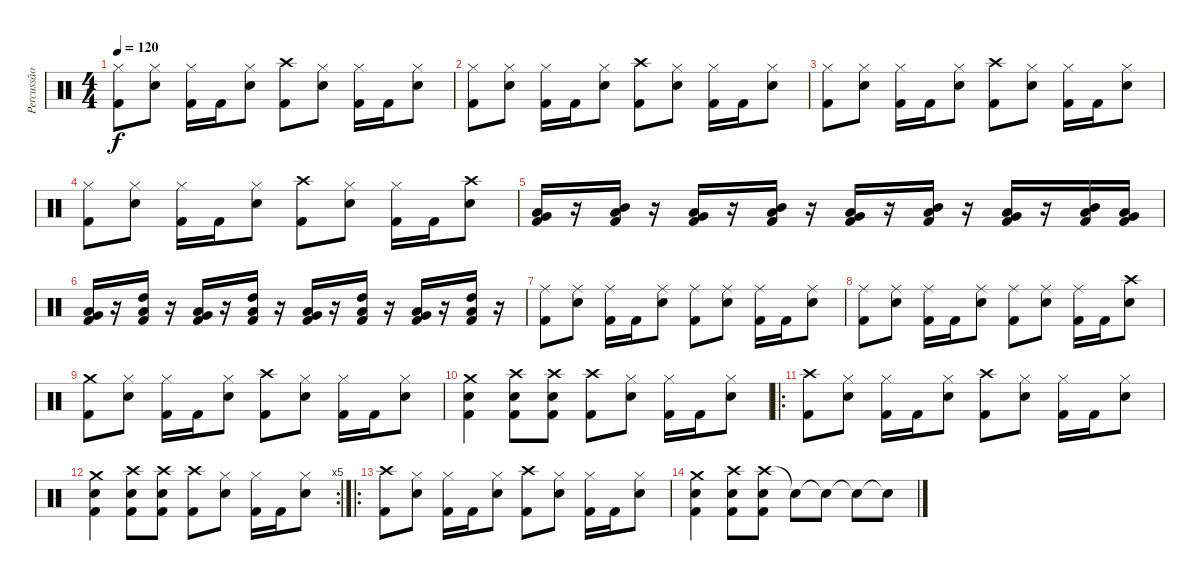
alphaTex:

\track ("Percussão" "Percussão") {instrument percussion}
\staff {score}
\articulation defaults
\ts (4 4)
\tempo 120
\clef neutral
\ks c
("Hi-Hat (closed)" "Kick (hit) 2").8{dy f} ("Hi-Hat (closed)" "Snare (hit) 2").8 ("Hi-Hat (closed)" "Kick (hit) 2").16 "Kick (hit) 2".16 ("Hi-Hat (closed)" "Snare (hit) 2").8 ("Crash high (hit)" "Kick (hit) 2").8 ("Hi-Hat (closed)" "Snare (hit) 2").8 ("Hi-Hat (closed)" "Kick (hit) 2").16 "Kick (hit) 2".16 ("Hi-Hat (closed)" "Snare (hit) 2").8 |
("Hi-Hat (closed)" "Kick (hit) 2").8 ("Hi-Hat (closed)" "Snare (hit) 2").8 ("Hi-Hat (closed)" "Kick (hit) 2").16 "Kick (hit) 2".16 ("Hi-Hat (closed)" "Snare (hit) 2").8 ("Crash high (hit)" "Kick (hit) 2").8 ("Hi-Hat (closed)" "Snare (hit) 2").8 ("Hi-Hat (closed)" "Kick (hit) 2").16 "Kick (hit) 2".16 ("Hi-Hat (closed)" "Snare (hit) 2").8 |
("Hi-Hat (closed)" "Kick (hit) 2").8 ("Hi-Hat (closed)" "Snare (hit) 2").8 ("Hi-Hat (closed)" "Kick (hit) 2").16 "Kick (hit) 2".16 ("Hi-Hat (closed)" "Snare (hit) 2").8 ("Crash high (hit)" "Kick (hit) 2").8 ("Hi-Hat (closed)" "Snare (hit) 2").8 ("Hi-Hat (closed)" "Kick (hit) 2").16 "Kick (hit) 2".16 ("Hi-Hat (closed)" "Snare (hit) 2").8 |
("Hi-Hat (closed)" "Kick (hit) 2").8 ("Hi-Hat (closed)" "Snare (hit) 2").8 ("Hi-Hat (closed)" "Kick (hit) 2").16 "Kick (hit) 2".16 ("Hi-Hat (closed)" "Snare (hit) 2").8 ("Crash high (hit)" "Kick (hit) 2").8 ("Hi-Hat (closed)" "Snare (hit) 2").8 ("Hi-Hat (closed)" "Kick (hit) 2").16 "Kick (hit) 2".16 ("Crash high (hit)" "Snare (hit) 2").8 |
("Low Tom (hit)" "Very Low Tom (hit)" "Kick (hit) 2").16 r.16 ("Mid Tom (hit)" "Low Tom (hit)" "Kick (hit) 2").16 r.16 ("Low Tom (hit)" "Very Low Tom (hit)" "Kick (hit) 2").16 r.16 ("Mid Tom (hit)" "Low Tom (hit)" "Kick (hit) 2").16 r.16 ("Low Tom (hit)" "Very Low Tom (hit)" "Kick (hit) 2").16 r.16 ("Mid Tom (hit)" "Low Tom (hit)" "Kick (hit) 2").16 r.16 ("Low Tom (hit)" "Very Low Tom (hit)" "Kick (hit) 2").16 r.16 ("Mid Tom (hit)" "Low Tom (hit)" "Kick (hit) 2").16 ("Low Tom (hit)" "Very Low Tom (hit)" "Kick (hit) 2").16 |
("Low Tom (hit)" "Very Low Tom (hit)" "Kick (hit) 2").16 r.16 ("High Tom (hit)" "Low Tom (hit)" "Kick (hit) 2").16 r.16 ("Low Tom (hit)" "Very Low Tom (hit)" "Kick (hit) 2").16 r.16 ("High Tom (hit)" "Low Tom (hit)" "Kick (hit) 2").16 r.16 ("Low Tom (hit)" "Very Low Tom (hit)" "Kick (hit) 2").16 r.16 ("High Tom (hit)" "Low Tom (hit)" "Kick (hit) 2").16 r.16 ("Low Tom (hit)" "Very Low Tom (hit)" "Kick (hit) 2").16 r.16 ("High Tom (hit)" "Low Tom (hit)" "Kick (hit) 2").16 r.16 |
("Ride (middle)" "Kick (hit) 2").8 ("Ride (middle)" "Snare (hit) 2").8 ("Ride (middle)" "Kick (hit) 2").16 "Kick (hit) 2".16 ("Ride (middle)" "Snare (hit) 2").8 ("Ride (middle)" "Kick (hit) 2").8 ("Ride (middle)" "Snare (hit) 2").8 ("Ride (middle)" "Kick (hit) 2").16 "Kick (hit) 2".16 ("Ride (middle)" "Snare (hit) 2").8 |
("Ride (middle)" "Kick (hit) 2").8 ("Ride (middle)" "Snare (hit) 2").8 ("Ride (middle)" "Kick (hit) 2").16 "Kick (hit) 2".16 ("Ride (middle)" "Snare (hit) 2").8 ("Ride (middle)" "Kick (hit) 2").8 ("Ride (middle)" "Snare (hit) 2").8 ("Ride (middle)" "Kick (hit) 2").16 "Kick (hit) 2".16 ("Crash high (hit)" "Snare (hit) 2").8 |
("Crash medium (hit)" "Kick (hit) 2").8 ("Hi-Hat (closed)" "Snare (hit) 2").8 ("Hi-Hat (closed)" "Kick (hit) 2").16 "Kick (hit) 2".16 ("Hi-Hat (closed)" "Snare (hit) 2").8 ("Crash high (hit)" "Kick (hit) 2").8 ("Hi-Hat (closed)" "Snare (hit) 2").8 ("Hi-Hat (closed)" "Kick (hit) 2").16 "Kick (hit) 2".16 ("Hi-Hat (closed)" "Snare (hit) 2").8 |
("Crash medium (hit)" "Snare (hit) 2" "Kick (hit) 2").4 ("Crash high (hit)" "Snare (hit) 2" "Kick (hit) 2").8 ("Crash high (hit)" "Snare (hit) 2" "Kick (hit) 2").8 ("Crash high (hit)" "Kick (hit) 2").8 ("Hi-Hat (closed)" "Snare (hit) 2").8 ("Hi-Hat (closed)" "Kick (hit) 2").16 "Kick (hit) 2".16 ("Hi-Hat (closed)" "Snare (hit) 2").8 |
\ro
("Crash high (hit)" "Kick (hit) 2").8 ("Hi-Hat (closed)" "Snare (hit) 2").8 ("Hi-Hat (closed)" "Kick (hit) 2").16 "Kick (hit) 2".16 ("Hi-Hat (closed)" "Snare (hit) 2").8 ("Crash high (hit)" "Kick (hit) 2").8 ("Hi-Hat (closed)" "Snare (hit) 2").8 ("Hi-Hat (closed)" "Kick (hit) 2").16 "Kick (hit) 2".16 ("Hi-Hat (closed)" "Snare (hit) 2").8 |
\rc 5
("Crash medium (hit)" "Snare (hit) 2" "Kick (hit) 2").4 ("Crash high (hit)" "Snare (hit) 2" "Kick (hit) 2").8 ("Crash high (hit)" "Snare (hit) 2" "Kick (hit) 2").8 ("Crash high (hit)" "Kick (hit) 2").8 ("Hi-Hat (closed)" "Snare (hit) 2").8 ("Hi-Hat (closed)" "Kick (hit) 2").16 "Kick (hit) 2".16 ("Hi-Hat (closed)" "Snare (hit) 2").8 |
\ro
("Crash high (hit)" "Kick (hit) 2").8 ("Hi-Hat (closed)" "Snare (hit) 2").8 ("Hi-Hat (closed)" "Kick (hit) 2").16 "Kick (hit) 2".16 ("Hi-Hat (closed)" "Snare (hit) 2").8 ("Crash high (hit)" "Kick (hit) 2").8 ("Hi-Hat (closed)" "Snare (hit) 2").8 ("Hi-Hat (closed)" "Kick (hit) 2").16 "Kick (hit) 2".16 ("Hi-Hat (closed)" "Snare (hit) 2").8 |
("Crash medium (hit)" "Snare (hit) 2" "Kick (hit) 2").4 ("Crash high (hit)" "Snare (hit) 2" "Kick (hit) 2").8 ("Crash high (hit)" "Snare (hit) 2" "Kick (hit) 2").8 "Snare (hit)"{t}.8 "Snare (hit)"{t}.8 "Snare (hit)"{t}.8 "Snare (hit)"{t}.8
